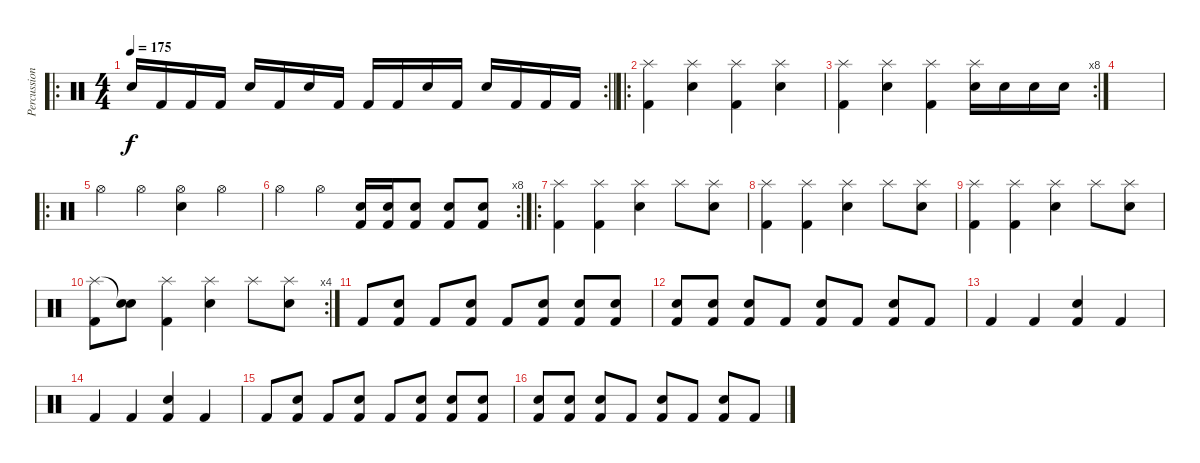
\track ("Percussion" "Percussion") {instrument percussion}
\staff {score}
\articulation defaults
\ro
\rc 2
\ts (4 4)
\tempo 175
\clef neutral
\barLineRight lightlight
\ks c "Electric Snare (hit)".16{dy f} "Kick (hit) 2".16 "Kick (hit) 2".16 "Kick (hit) 2".16 "Electric Snare (hit)".16 "Kick (hit) 2".16 "Electric Snare (hit)".16 "Kick (hit) 2".16 "Kick (hit) 2".16 "Kick (hit) 2".16 "Electric Snare (hit)".16 "Kick (hit) 2".16 "Electric Snare (hit)".16 "Kick (hit) 2".16 "Kick (hit) 2".16 "Kick (hit) 2".16
|
\ro
("Splash (hit)" "Kick (hit) 2").4 ("Splash (hit)" "Electric Snare (hit)").4 ("Splash (hit)" "Kick (hit) 2").4 ("Splash (hit)" "Electric Snare (hit)").4 |
\rc 8
("Splash (hit)" "Kick (hit) 2").4 ("Splash (hit)" "Electric Snare (hit)").4 ("Splash (hit)" "Kick (hit) 2").4 ("Splash (hit)" "Electric Snare (hit)").16 "Electric Snare (hit)".16 "Electric Snare (hit)".16 "Electric Snare (hit)".16 |
|
\ro "Hi-Hat (open)".4 "Hi-Hat (open)".4
("Hi-Hat (open)" "Electric Snare (hit)").4 "Hi-Hat (open)".4 |
\rc 8 "Hi-Hat (open)".4 "Hi-Hat (open)".4
("Electric Snare (hit)" "Kick (hit) 2").16 ("Electric Snare (hit)" "Kick (hit) 2").16 ("Electric Snare (hit)" "Kick (hit) 2").8 ("Electric Snare (hit)" "Kick (hit) 2").8 ("Electric Snare (hit)" "Kick (hit) 2").8 |
\ro
("Splash (hit)" "Kick (hit) 2").4 ("Splash (hit)" "Kick (hit) 2").4 ("Splash (hit)" "Electric Snare (hit)").4 "Splash (hit)".8 ("Splash (hit)" "Electric Snare (hit)").8 |
("Splash (hit)" "Kick (hit) 2").4 ("Splash (hit)" "Kick (hit) 2").4 ("Splash (hit)" "Electric Snare (hit)").4 "Splash (hit)".8 ("Splash (hit)" "Electric Snare (hit)").8 |
("Splash (hit)" "Kick (hit) 2").4 ("Splash (hit)" "Kick (hit) 2").4 ("Splash (hit)" "Electric Snare (hit)").4 "Splash (hit)".8 ("Splash (hit)" "Electric Snare (hit)").8 |
\rc 4
("Splash (hit)" "Kick (hit) 2").8 ("Snare (hit)"{t} "Electric Snare (hit)").8 ("Splash (hit)" "Kick (hit) 2").4 ("Splash (hit)" "Electric Snare (hit)").4 "Splash (hit)".8 ("Splash (hit)" "Electric Snare (hit)").8 |
"Kick (hit) 2".8 ("Electric Snare (hit)" "Kick (hit) 2").8 "Kick (hit) 2".8 ("Electric Snare (hit)" "Kick (hit) 2").8 "Kick (hit) 2".8 ("Electric Snare (hit)" "Kick (hit) 2").8 ("Electric Snare (hit)" "Kick (hit) 2").8 ("Electric Snare (hit)" "Kick (hit) 2").8 |
("Electric Snare (hit)" "Kick (hit) 2").8 ("Electric Snare (hit)" "Kick (hit) 2").8 ("Electric Snare (hit)" "Kick (hit) 2").8 "Kick (hit) 2".8 ("Electric Snare (hit)" "Kick (hit) 2").8 "Kick (hit) 2".8 ("Electric Snare (hit)" "Kick (hit) 2").8 "Kick (hit) 2".8 |
"Kick (hit) 2".4 "Kick (hit) 2".4 ("Electric Snare (hit)" "Kick (hit) 2").4 "Kick (hit) 2".4 |
"Kick (hit) 2".4 "Kick (hit) 2".4 ("Electric Snare (hit)" "Kick (hit) 2").4 "Kick (hit) 2".4 |
"Kick (hit) 2".8 ("Electric Snare (hit)" "Kick (hit) 2").8 "Kick (hit) 2".8 ("Electric Snare (hit)" "Kick (hit) 2").8 "Kick (hit) 2".8 ("Electric Snare (hit)" "Kick (hit) 2").8 ("Electric Snare (hit)" "Kick (hit) 2").8 ("Electric Snare (hit)" "Kick (hit) 2").8 |
("Electric Snare (hit)" "Kick (hit) 2").8 ("Electric Snare (hit)" "Kick (hit) 2").8 ("Electric Snare (hit)" "Kick (hit) 2").8 "Kick (hit) 2".8 ("Electric Snare (hit)" "Kick (hit) 2").8 "Kick (hit) 2".8 ("Electric Snare (hit)" "Kick (hit) 2").8 "Kick (hit) 2".8
